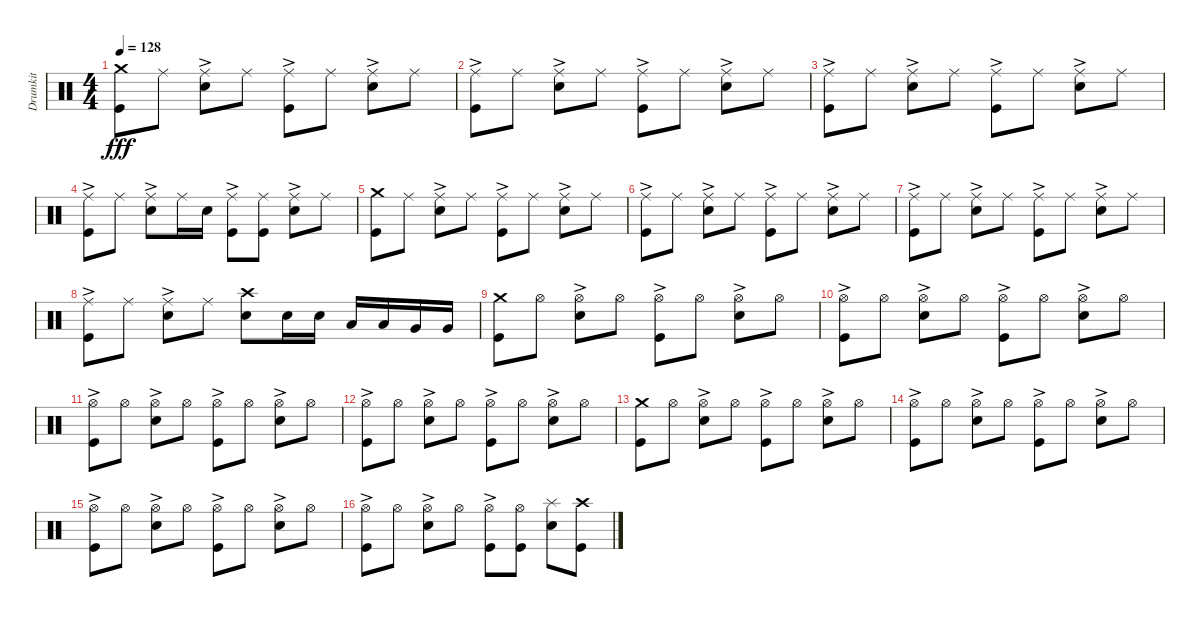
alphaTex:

\track ("Drumkit" "Drumkit") {instrument percussion}
\staff {score}
\articulation defaults
\ts (4 4)
\tempo 128
\clef neutral
\ks c
("Kick (hit)" "Crash medium (hit)").8{dy fff} "Ride (middle)".8 ("Snare (hit) 2" "Ride (middle)"{ac}).8 "Ride (middle)".8 ("Ride (middle)"{ac} "Kick (hit)").8 "Ride (middle)".8 ("Snare (hit) 2" "Ride (middle)"{ac}).8 "Ride (middle)".8 |
("Kick (hit)" "Ride (middle)"{ac}).8 "Ride (middle)".8 ("Snare (hit) 2" "Ride (middle)"{ac}).8 "Ride (middle)".8 ("Ride (middle)"{ac} "Kick (hit)").8 "Ride (middle)".8 ("Snare (hit) 2" "Ride (middle)"{ac}).8 "Ride (middle)".8 |
("Kick (hit)" "Ride (middle)"{ac}).8 "Ride (middle)".8 ("Snare (hit) 2" "Ride (middle)"{ac}).8 "Ride (middle)".8 ("Ride (middle)"{ac} "Kick (hit)").8 "Ride (middle)".8 ("Snare (hit) 2" "Ride (middle)"{ac}).8 "Ride (middle)".8 |
("Kick (hit)" "Ride (middle)"{ac}).8 "Ride (middle)".8 ("Snare (hit) 2" "Ride (middle)"{ac}).8 "Ride (middle)".16 "Snare (hit) 2".16 ("Ride (middle)"{ac} "Kick (hit)").8 ("Ride (middle)" "Kick (hit)").8 ("Snare (hit) 2" "Ride (middle)"{ac}).8 "Ride (middle)".8 |
("Kick (hit)" "Crash medium (hit)").8 "Ride (middle)".8 ("Snare (hit) 2" "Ride (middle)"{ac}).8 "Ride (middle)".8 ("Ride (middle)"{ac} "Kick (hit)").8 "Ride (middle)".8 ("Snare (hit) 2" "Ride (middle)"{ac}).8 "Ride (middle)".8 |
("Kick (hit)" "Ride (middle)"{ac}).8 "Ride (middle)".8 ("Snare (hit) 2" "Ride (middle)"{ac}).8 "Ride (middle)".8 ("Ride (middle)"{ac} "Kick (hit)").8 "Ride (middle)".8 ("Snare (hit) 2" "Ride (middle)"{ac}).8 "Ride (middle)".8 |
("Kick (hit)" "Ride (middle)"{ac}).8 "Ride (middle)".8 ("Snare (hit) 2" "Ride (middle)"{ac}).8 "Ride (middle)".8 ("Ride (middle)"{ac} "Kick (hit)").8 "Ride (middle)".8 ("Snare (hit) 2" "Ride (middle)"{ac}).8 "Ride (middle)".8 |
("Kick (hit)" "Ride (middle)"{ac}).8 "Ride (middle)".8 ("Snare (hit) 2" "Ride (middle)"{ac}).8 "Ride (middle)".8 ("Snare (hit) 2" "Crash high (hit)").8 "Snare (hit) 2".16 "Snare (hit) 2".16 "Low Tom (hit)".16 "Low Tom (hit)".16 "Very Low Tom (hit)".16 "Very Low Tom (hit)".16 |
("Kick (hit)" "Crash medium (hit)").8 "Hi-Hat (open)".8 ("Snare (hit) 2" "Hi-Hat (open)"{ac}).8 "Hi-Hat (open)".8 ("Kick (hit)" "Hi-Hat (open)"{ac}).8 "Hi-Hat (open)".8 ("Snare (hit) 2" "Hi-Hat (open)"{ac}).8 "Hi-Hat (open)".8 |
("Kick (hit)" "Hi-Hat (open)"{ac}).8 "Hi-Hat (open)".8 ("Snare (hit) 2" "Hi-Hat (open)"{ac}).8 "Hi-Hat (open)".8 ("Kick (hit)" "Hi-Hat (open)"{ac}).8 "Hi-Hat (open)".8 ("Snare (hit) 2" "Hi-Hat (open)"{ac}).8 "Hi-Hat (open)".8 |
("Kick (hit)" "Hi-Hat (open)"{ac}).8 "Hi-Hat (open)".8 ("Snare (hit) 2" "Hi-Hat (open)"{ac}).8 "Hi-Hat (open)".8 ("Kick (hit)" "Hi-Hat (open)"{ac}).8 "Hi-Hat (open)".8 ("Snare (hit) 2" "Hi-Hat (open)"{ac}).8 "Hi-Hat (open)".8 |
("Kick (hit)" "Hi-Hat (open)"{ac}).8 "Hi-Hat (open)".8 ("Snare (hit) 2" "Hi-Hat (open)"{ac}).8 "Hi-Hat (open)".8 ("Kick (hit)" "Hi-Hat (open)"{ac}).8 "Hi-Hat (open)".8 ("Snare (hit) 2" "Hi-Hat (open)"{ac}).8 "Hi-Hat (open)".8 |
("Kick (hit)" "Crash medium (hit)").8 "Hi-Hat (open)".8 ("Snare (hit) 2" "Hi-Hat (open)"{ac}).8 "Hi-Hat (open)".8 ("Kick (hit)" "Hi-Hat (open)"{ac}).8 "Hi-Hat (open)".8 ("Snare (hit) 2" "Hi-Hat (open)"{ac}).8 "Hi-Hat (open)".8 |
("Kick (hit)" "Hi-Hat (open)"{ac}).8 "Hi-Hat (open)".8 ("Snare (hit) 2" "Hi-Hat (open)"{ac}).8 "Hi-Hat (open)".8 ("Kick (hit)" "Hi-Hat (open)"{ac}).8 "Hi-Hat (open)".8 ("Snare (hit) 2" "Hi-Hat (open)"{ac}).8 "Hi-Hat (open)".8 |
("Kick (hit)" "Hi-Hat (open)"{ac}).8 "Hi-Hat (open)".8 ("Snare (hit) 2" "Hi-Hat (open)"{ac}).8 "Hi-Hat (open)".8 ("Kick (hit)" "Hi-Hat (open)"{ac}).8 "Hi-Hat (open)".8 ("Snare (hit) 2" "Hi-Hat (open)"{ac}).8 "Hi-Hat (open)".8 |
("Kick (hit)" "Hi-Hat (open)"{ac}).8 "Hi-Hat (open)".8 ("Snare (hit) 2" "Hi-Hat (open)"{ac}).8 "Hi-Hat (open)".8 ("Kick (hit)" "Hi-Hat (open)"{ac}).8 ("Hi-Hat (open)" "Kick (hit)").8 ("Snare (hit) 2" "Splash (hit)").8 ("Crash high (hit)" "Kick (hit)").8
